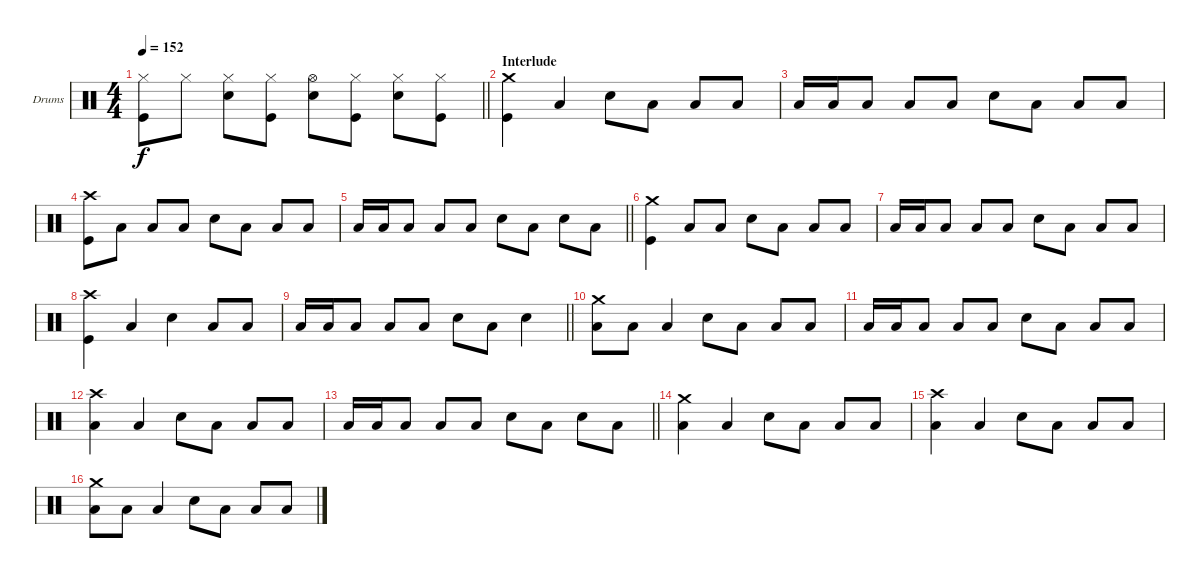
\bracketExtendMode groupsimilarinstruments
\firstSystemTrackNameOrientation horizontal
\otherSystemsTrackNameOrientation horizontal
\track ("Drumkit" "Drums") {instrument percussion}
\staff {score}
\articulation defaults
\ts (4 4)
\tempo 152
\clef neutral
\barLineRight lightlight
\ks c
("Hi-Hat (closed)" "Kick (hit)").8{dy f} "Hi-Hat (closed)".8 ("Hi-Hat (closed)" "Snare (hit) 2").8 ("Hi-Hat (closed)" "Kick (hit)").8 ("Hi-Hat (open)" "Snare (hit) 2").8 ("Hi-Hat (closed)" "Kick (hit)").8 ("Hi-Hat (closed)" "Snare (hit) 2").8 ("Hi-Hat (closed)" "Kick (hit)").8 |
\section ("" "Interlude")
("Crash medium (hit)" "Kick (hit)").4 "Low Tom (hit)".4 "Snare (hit) 2".8 "Low Tom (hit)".8 "Low Tom (hit)".8 "Low Tom (hit)".8 |
"Low Tom (hit)".16 "Low Tom (hit)".16 "Low Tom (hit)".8 "Low Tom (hit)".8 "Low Tom (hit)".8 "Snare (hit) 2".8 "Low Tom (hit)".8 "Low Tom (hit)".8 "Low Tom (hit)".8 |
("Crash high (hit)" "Kick (hit)").8 "Low Tom (hit)".8 "Low Tom (hit)".8 "Low Tom (hit)".8 "Snare (hit) 2".8 "Low Tom (hit)".8 "Low Tom (hit)".8 "Low Tom (hit)".8 |
\barLineRight lightlight "Low Tom (hit)".16 "Low Tom (hit)".16 "Low Tom (hit)".8 "Low Tom (hit)".8 "Low Tom (hit)".8 "Snare (hit) 2".8 "Low Tom (hit)".8 "Snare (hit) 2".8 "Low Tom (hit)".8
|
("Crash medium (hit)" "Kick (hit)").4 "Low Tom (hit)".8 "Low Tom (hit)".8 "Snare (hit) 2".8 "Low Tom (hit)".8 "Low Tom (hit)".8 "Low Tom (hit)".8 |
"Low Tom (hit)".16 "Low Tom (hit)".16 "Low Tom (hit)".8 "Low Tom (hit)".8 "Low Tom (hit)".8 "Snare (hit) 2".8 "Low Tom (hit)".8 "Low Tom (hit)".8 "Low Tom (hit)".8 |
("Crash high (hit)" "Kick (hit)").4 "Low Tom (hit)".4 "Snare (hit) 2".4 "Low Tom (hit)".8 "Low Tom (hit)".8 |
\barLineRight lightlight "Low Tom (hit)".16 "Low Tom (hit)".16 "Low Tom (hit)".8 "Low Tom (hit)".8 "Low Tom (hit)".8 "Snare (hit) 2".8 "Low Tom (hit)".8 "Snare (hit) 2".4
|
("Crash medium (hit)" "Low Tom (hit)").8 "Low Tom (hit)".8 "Low Tom (hit)".4 "Snare (hit) 2".8 "Low Tom (hit)".8 "Low Tom (hit)".8 "Low Tom (hit)".8 |
"Low Tom (hit)".16 "Low Tom (hit)".16 "Low Tom (hit)".8 "Low Tom (hit)".8 "Low Tom (hit)".8 "Snare (hit) 2".8 "Low Tom (hit)".8 "Low Tom (hit)".8 "Low Tom (hit)".8 |
("Crash high (hit)" "Low Tom (hit)").4 "Low Tom (hit)".4 "Snare (hit) 2".8 "Low Tom (hit)".8 "Low Tom (hit)".8 "Low Tom (hit)".8 |
\barLineRight lightlight "Low Tom (hit)".16 "Low Tom (hit)".16 "Low Tom (hit)".8 "Low Tom (hit)".8 "Low Tom (hit)".8 "Snare (hit) 2".8 "Low Tom (hit)".8 "Snare (hit) 2".8 "Low Tom (hit)".8
|
("Crash medium (hit)" "Low Tom (hit)").4 "Low Tom (hit)".4 "Snare (hit) 2".8 "Low Tom (hit)".8 "Low Tom (hit)".8 "Low Tom (hit)".8 |
("Crash high (hit)" "Low Tom (hit)").4 "Low Tom (hit)".4 "Snare (hit) 2".8 "Low Tom (hit)".8 "Low Tom (hit)".8 "Low Tom (hit)".8 |
("Crash medium (hit)" "Low Tom (hit)").8 "Low Tom (hit)".8 "Low Tom (hit)".4 "Snare (hit) 2".8 "Low Tom (hit)".8 "Low Tom (hit)".8 "Low Tom (hit)".8
